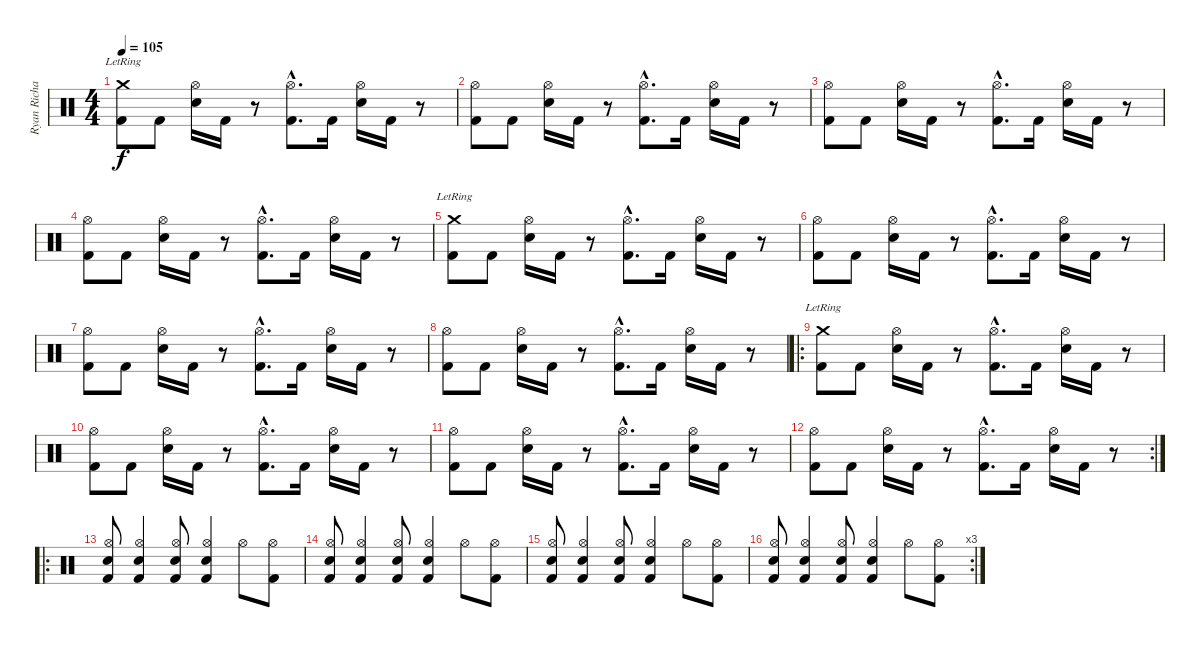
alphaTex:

\track ("Ryan Richards" "Ryan Richa") {instrument percussion}
\staff {score}
\articulation defaults
\ts (4 4)
\tempo 105
\clef neutral
\ks c
("Crash medium (hit)"{lr} "Kick (hit) 2").8{dy f} "Kick (hit) 2".8 ("Hi-Hat (open)" "Snare (hit) 2").16 "Kick (hit) 2".16 r.8 ("Hi-Hat (open)"{hac} "Kick (hit) 2"{hac}).8{d} "Kick (hit) 2".16 ("Hi-Hat (open)" "Snare (hit) 2").16 "Kick (hit) 2".16 r.8 |
("Hi-Hat (open)" "Kick (hit) 2").8 "Kick (hit) 2".8 ("Hi-Hat (open)" "Snare (hit) 2").16 "Kick (hit) 2".16 r.8 ("Hi-Hat (open)"{hac} "Kick (hit) 2"{hac}).8{d} "Kick (hit) 2".16 ("Hi-Hat (open)" "Snare (hit) 2").16 "Kick (hit) 2".16 r.8 |
("Hi-Hat (open)" "Kick (hit) 2").8 "Kick (hit) 2".8 ("Hi-Hat (open)" "Snare (hit) 2").16 "Kick (hit) 2".16 r.8 ("Hi-Hat (open)"{hac} "Kick (hit) 2"{hac}).8{d} "Kick (hit) 2".16 ("Hi-Hat (open)" "Snare (hit) 2").16 "Kick (hit) 2".16 r.8 |
("Hi-Hat (open)" "Kick (hit) 2").8 "Kick (hit) 2".8 ("Hi-Hat (open)" "Snare (hit) 2").16 "Kick (hit) 2".16 r.8 ("Hi-Hat (open)"{hac} "Kick (hit) 2"{hac}).8{d} "Kick (hit) 2".16 ("Hi-Hat (open)" "Snare (hit) 2").16 "Kick (hit) 2".16 r.8 |
("Crash medium (hit)"{lr} "Kick (hit) 2").8 "Kick (hit) 2".8 ("Hi-Hat (open)" "Snare (hit) 2").16 "Kick (hit) 2".16 r.8 ("Hi-Hat (open)"{hac} "Kick (hit) 2"{hac}).8{d} "Kick (hit) 2".16 ("Hi-Hat (open)" "Snare (hit) 2").16 "Kick (hit) 2".16 r.8 |
("Hi-Hat (open)" "Kick (hit) 2").8 "Kick (hit) 2".8 ("Hi-Hat (open)" "Snare (hit) 2").16 "Kick (hit) 2".16 r.8 ("Hi-Hat (open)"{hac} "Kick (hit) 2"{hac}).8{d} "Kick (hit) 2".16 ("Hi-Hat (open)" "Snare (hit) 2").16 "Kick (hit) 2".16 r.8 |
("Hi-Hat (open)" "Kick (hit) 2").8 "Kick (hit) 2".8 ("Hi-Hat (open)" "Snare (hit) 2").16 "Kick (hit) 2".16 r.8 ("Hi-Hat (open)"{hac} "Kick (hit) 2"{hac}).8{d} "Kick (hit) 2".16 ("Hi-Hat (open)" "Snare (hit) 2").16 "Kick (hit) 2".16 r.8 |
("Hi-Hat (open)" "Kick (hit) 2").8 "Kick (hit) 2".8 ("Hi-Hat (open)" "Snare (hit) 2").16 "Kick (hit) 2".16 r.8 ("Hi-Hat (open)"{hac} "Kick (hit) 2"{hac}).8{d} "Kick (hit) 2".16 ("Hi-Hat (open)" "Snare (hit) 2").16 "Kick (hit) 2".16 r.8 |
\ro
("Crash medium (hit)"{lr} "Kick (hit) 2").8 "Kick (hit) 2".8 ("Hi-Hat (open)" "Snare (hit) 2").16 "Kick (hit) 2".16 r.8 ("Hi-Hat (open)"{hac} "Kick (hit) 2"{hac}).8{d} "Kick (hit) 2".16 ("Hi-Hat (open)" "Snare (hit) 2").16 "Kick (hit) 2".16 r.8 |
("Hi-Hat (open)" "Kick (hit) 2").8 "Kick (hit) 2".8 ("Hi-Hat (open)" "Snare (hit) 2").16 "Kick (hit) 2".16 r.8 ("Hi-Hat (open)"{hac} "Kick (hit) 2"{hac}).8{d} "Kick (hit) 2".16 ("Hi-Hat (open)" "Snare (hit) 2").16 "Kick (hit) 2".16 r.8 |
("Hi-Hat (open)" "Kick (hit) 2").8 "Kick (hit) 2".8 ("Hi-Hat (open)" "Snare (hit) 2").16 "Kick (hit) 2".16 r.8 ("Hi-Hat (open)"{hac} "Kick (hit) 2"{hac}).8{d} "Kick (hit) 2".16 ("Hi-Hat (open)" "Snare (hit) 2").16 "Kick (hit) 2".16 r.8 |
\rc 2
("Hi-Hat (open)" "Kick (hit) 2").8 "Kick (hit) 2".8 ("Hi-Hat (open)" "Snare (hit) 2").16 "Kick (hit) 2".16 r.8 ("Hi-Hat (open)"{hac} "Kick (hit) 2"{hac}).8{d} "Kick (hit) 2".16 ("Hi-Hat (open)" "Snare (hit) 2").16 "Kick (hit) 2".16 r.8 |
\ro
("Hi-Hat (open)" "Snare (hit) 2" "Kick (hit) 2").8 ("Hi-Hat (open)" "Snare (hit) 2" "Kick (hit) 2").4 ("Hi-Hat (open)" "Snare (hit) 2" "Kick (hit) 2").8 ("Hi-Hat (open)" "Snare (hit) 2" "Kick (hit) 2").4 "Hi-Hat (open)".8 ("Hi-Hat (open)" "Kick (hit) 2").8 |
("Hi-Hat (open)" "Snare (hit) 2" "Kick (hit) 2").8 ("Hi-Hat (open)" "Snare (hit) 2" "Kick (hit) 2").4 ("Hi-Hat (open)" "Snare (hit) 2" "Kick (hit) 2").8 ("Hi-Hat (open)" "Snare (hit) 2" "Kick (hit) 2").4 "Hi-Hat (open)".8 ("Hi-Hat (open)" "Kick (hit) 2").8 |
("Hi-Hat (open)" "Snare (hit) 2" "Kick (hit) 2").8 ("Hi-Hat (open)" "Snare (hit) 2" "Kick (hit) 2").4 ("Hi-Hat (open)" "Snare (hit) 2" "Kick (hit) 2").8 ("Hi-Hat (open)" "Snare (hit) 2" "Kick (hit) 2").4 "Hi-Hat (open)".8 ("Hi-Hat (open)" "Kick (hit) 2").8 |
\rc 3
("Hi-Hat (open)" "Snare (hit) 2" "Kick (hit) 2").8 ("Hi-Hat (open)" "Snare (hit) 2" "Kick (hit) 2").4 ("Hi-Hat (open)" "Snare (hit) 2" "Kick (hit) 2").8 ("Hi-Hat (open)" "Snare (hit) 2" "Kick (hit) 2").4 "Hi-Hat (open)".8 ("Hi-Hat (open)" "Kick (hit) 2").8
